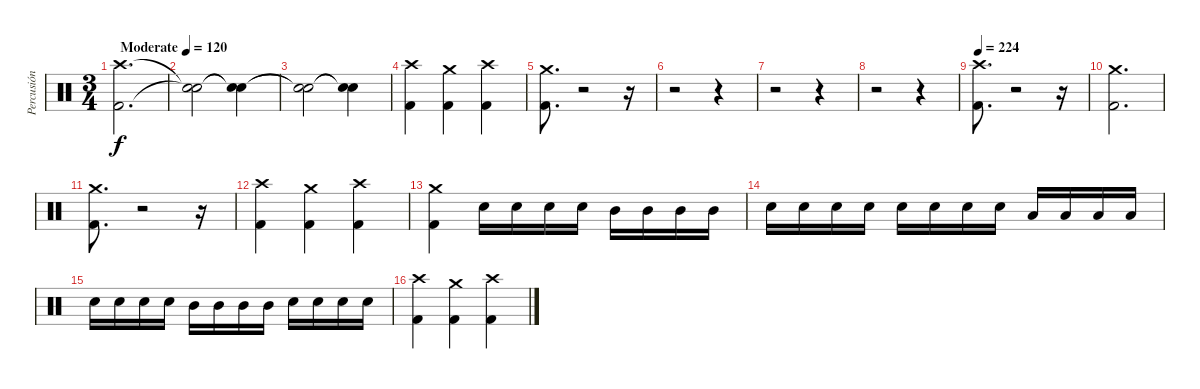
\track ("Percusión" "Percusión") {instrument percussion}
\staff {score}
\articulation defaults
\ts (3 4)
\tempo (120 "Moderate")
\tempo 224
\tempo (120 "Moderate")
\clef neutral
\ks c
("Crash high (hit)" "Kick (hit) 2").2{d dy f} |
("Snare (hit)"{t} "Snare (hit)"{t}).2 ("Snare (hit)"{t} "Snare (hit)"{t}).4 |
("Snare (hit)"{t} "Snare (hit)"{t}).2 ("Snare (hit)"{t} "Snare (hit)"{t}).4 |
("Crash high (hit)" "Kick (hit) 2").4 ("Crash medium (hit)" "Kick (hit) 2").4 ("Crash high (hit)" "Kick (hit) 2").4 |
("Crash medium (hit)" "Kick (hit) 2").8{d} r.2 r.16 |
r.2 r.4 |
r.2 r.4 |
r.2 r.4 |
\tempo 224
("Crash high (hit)" "Kick (hit) 2").8{d} r.2 r.16 |
("Crash medium (hit)" "Kick (hit) 2").2{d} |
("Crash medium (hit)" "Kick (hit) 2").8{d} r.2 r.16 |
("Crash high (hit)" "Kick (hit) 2").4 ("Crash medium (hit)" "Kick (hit) 2").4 ("Crash high (hit)" "Kick (hit) 2").4 |
("Crash medium (hit)" "Kick (hit) 2").4 "Electric Snare (hit)".16 "Electric Snare (hit)".16 "Electric Snare (hit)".16 "Electric Snare (hit)".16 "Mid Tom (hit)".16 "Mid Tom (hit)".16 "Mid Tom (hit)".16 "Mid Tom (hit)".16 |
"Electric Snare (hit)".16 "Electric Snare (hit)".16 "Electric Snare (hit)".16 "Electric Snare (hit)".16 "Electric Snare (hit)".16 "Electric Snare (hit)".16 "Electric Snare (hit)".16 "Electric Snare (hit)".16 "Low Tom (hit)".16 "Low Tom (hit)".16 "Low Tom (hit)".16 "Low Tom (hit)".16 |
"Electric Snare (hit)".16 "Electric Snare (hit)".16 "Electric Snare (hit)".16 "Electric Snare (hit)".16 "Mid Tom (hit)".16 "Mid Tom (hit)".16 "Mid Tom (hit)".16 "Mid Tom (hit)".16 "Electric Snare (hit)".16 "Electric Snare (hit)".16 "Electric Snare (hit)".16 "Electric Snare (hit)".16 |
("Crash high (hit)" "Kick (hit) 2").4 ("Crash medium (hit)" "Kick (hit) 2").4 ("Crash high (hit)" "Kick (hit) 2").4
